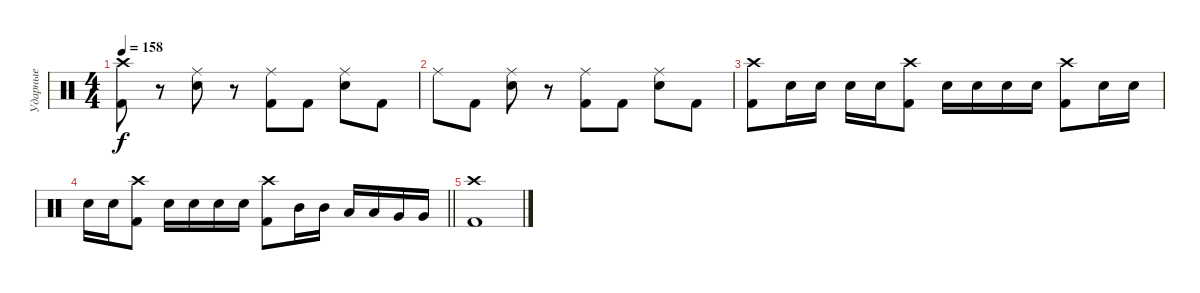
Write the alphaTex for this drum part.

\track ("Ударные" "Ударные") {instrument percussion}
\staff {score}
\articulation defaults
\ts (4 4)
\tempo 158
\clef neutral
\ks c
("Crash high (hit)" "Kick (hit) 2").8{dy f} r.8 ("Ride (middle)" "Electric Snare (hit)").8 r.8 ("Ride (middle)" "Kick (hit) 2").8 "Kick (hit) 2".8 ("Ride (middle)" "Electric Snare (hit)").8 "Kick (hit) 2".8 |
"Ride (middle)".8 "Kick (hit) 2".8 ("Ride (middle)" "Electric Snare (hit)").8 r.8 ("Ride (middle)" "Kick (hit) 2").8 "Kick (hit) 2".8 ("Ride (middle)" "Electric Snare (hit)").8 "Kick (hit) 2".8 |
("Crash high (hit)" "Kick (hit) 2").8 "Electric Snare (hit)".16 "Electric Snare (hit)".16 "Electric Snare (hit)".16 "Electric Snare (hit)".16 ("Crash high (hit)" "Kick (hit) 2").8 "Electric Snare (hit)".16 "Electric Snare (hit)".16 "Electric Snare (hit)".16 "Electric Snare (hit)".16 ("Crash high (hit)" "Kick (hit) 2").8 "Electric Snare (hit)".16 "Electric Snare (hit)".16 |
\barLineRight lightlight "Electric Snare (hit)".16 "Electric Snare (hit)".16
("Crash high (hit)" "Kick (hit) 2").8 "Electric Snare (hit)".16 "Electric Snare (hit)".16 "Electric Snare (hit)".16 "Electric Snare (hit)".16 ("Crash high (hit)" "Kick (hit) 2").8 "Mid Tom (hit)".16 "Mid Tom (hit)".16 "Low Tom (hit)".16 "Low Tom (hit)".16 "Very Low Tom (hit)".16 "Very Low Tom (hit)".16 |
("Crash high (hit)" "Kick (hit) 2").1
